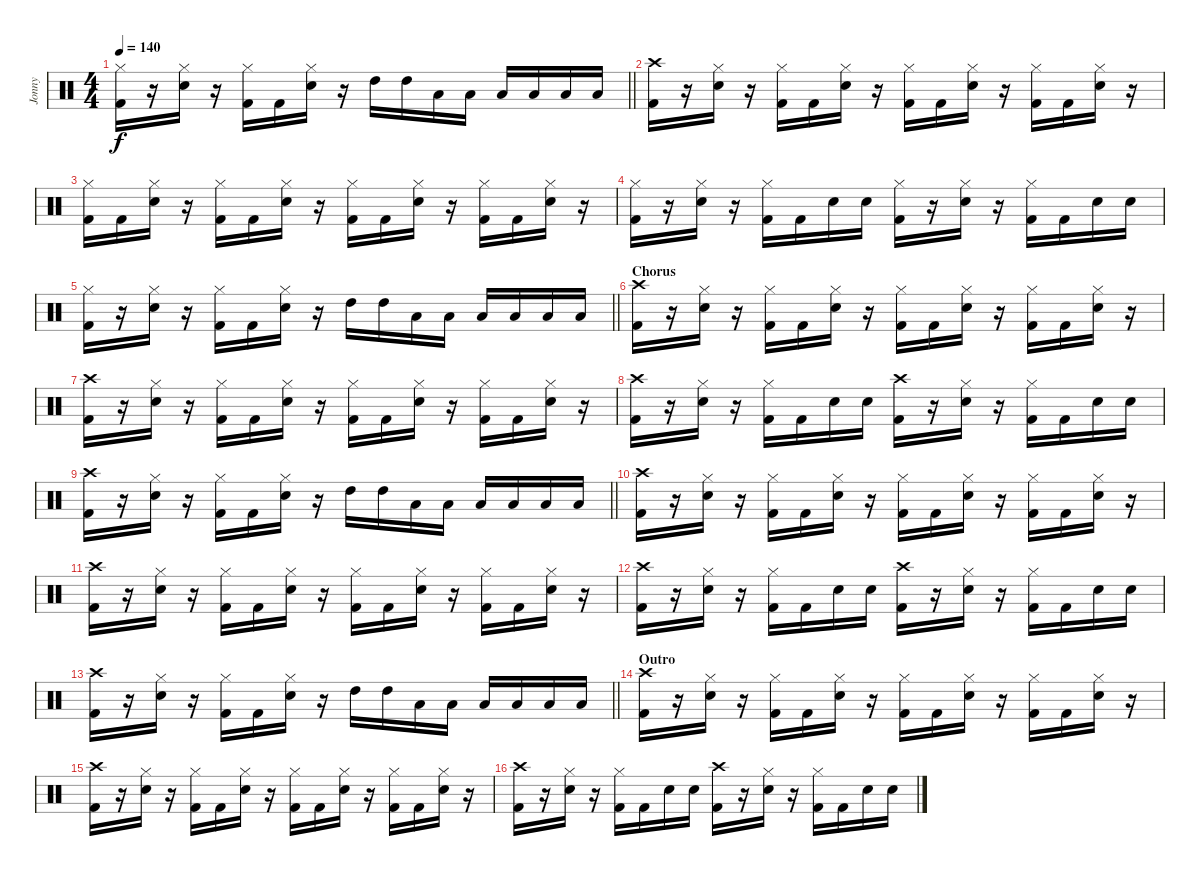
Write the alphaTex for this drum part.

\track ("Jonny" "Jonny") {instrument percussion}
\staff {score}
\articulation defaults
\ts (4 4)
\tempo 140
\clef neutral
\barLineRight lightlight
\ks c
("Hi-Hat (closed)" "Kick (hit) 2").16{dy f} r.16 ("Hi-Hat (closed)" "Electric Snare (hit)").16 r.16 ("Hi-Hat (closed)" "Kick (hit) 2").16 "Kick (hit) 2".16 ("Hi-Hat (closed)" "Electric Snare (hit)").16 r.16 "High Tom (hit)".16 "High Tom (hit)".16 "Low Tom (hit)".16 "Low Tom (hit)".16 "Low Floor Tom (hit)".16 "Low Tom (hit)".16 "Low Floor Tom (hit)".16 "Low Floor Tom (hit)".16 |
("Crash high (hit)" "Kick (hit) 2").16 r.16 ("Hi-Hat (closed)" "Electric Snare (hit)").16 r.16 ("Hi-Hat (closed)" "Kick (hit) 2").16 "Kick (hit) 2".16 ("Hi-Hat (closed)" "Electric Snare (hit)").16 r.16 ("Hi-Hat (closed)" "Kick (hit) 2").16 "Kick (hit) 2".16 ("Hi-Hat (closed)" "Electric Snare (hit)").16 r.16 ("Hi-Hat (closed)" "Kick (hit) 2").16 "Kick (hit) 2".16 ("Hi-Hat (closed)" "Electric Snare (hit)").16 r.16 |
("Hi-Hat (closed)" "Kick (hit) 2").16 "Kick (hit) 2".16 ("Hi-Hat (closed)" "Electric Snare (hit)").16 r.16 ("Hi-Hat (closed)" "Kick (hit) 2").16 "Kick (hit) 2".16 ("Hi-Hat (closed)" "Electric Snare (hit)").16 r.16 ("Hi-Hat (closed)" "Kick (hit) 2").16 "Kick (hit) 2".16 ("Hi-Hat (closed)" "Electric Snare (hit)").16 r.16 ("Hi-Hat (closed)" "Kick (hit) 2").16 "Kick (hit) 2".16 ("Hi-Hat (closed)" "Electric Snare (hit)").16 r.16 |
("Hi-Hat (closed)" "Kick (hit) 2").16 r.16 ("Hi-Hat (closed)" "Electric Snare (hit)").16 r.16 ("Hi-Hat (closed)" "Kick (hit) 2").16 "Kick (hit) 2".16 "Electric Snare (hit)".16 "Electric Snare (hit)".16 ("Hi-Hat (closed)" "Kick (hit) 2").16 r.16 ("Hi-Hat (closed)" "Electric Snare (hit)").16 r.16 ("Hi-Hat (closed)" "Kick (hit) 2").16 "Kick (hit) 2".16 "Electric Snare (hit)".16 "Electric Snare (hit)".16 |
\barLineRight lightlight
("Hi-Hat (closed)" "Kick (hit) 2").16 r.16 ("Hi-Hat (closed)" "Electric Snare (hit)").16 r.16 ("Hi-Hat (closed)" "Kick (hit) 2").16 "Kick (hit) 2".16 ("Hi-Hat (closed)" "Electric Snare (hit)").16 r.16 "High Tom (hit)".16 "High Tom (hit)".16 "Low Tom (hit)".16 "Low Tom (hit)".16 "Low Floor Tom (hit)".16 "Low Tom (hit)".16 "Low Floor Tom (hit)".16 "Low Floor Tom (hit)".16 |
\section ("" "Chorus")
("Crash high (hit)" "Kick (hit) 2").16 r.16 ("Hi-Hat (closed)" "Electric Snare (hit)").16 r.16 ("Hi-Hat (closed)" "Kick (hit) 2").16 "Kick (hit) 2".16 ("Hi-Hat (closed)" "Electric Snare (hit)").16 r.16 ("Hi-Hat (closed)" "Kick (hit) 2").16 "Kick (hit) 2".16 ("Hi-Hat (closed)" "Electric Snare (hit)").16 r.16 ("Hi-Hat (closed)" "Kick (hit) 2").16 "Kick (hit) 2".16 ("Hi-Hat (closed)" "Electric Snare (hit)").16 r.16 |
("Crash high (hit)" "Kick (hit) 2").16 r.16 ("Hi-Hat (closed)" "Electric Snare (hit)").16 r.16 ("Hi-Hat (closed)" "Kick (hit) 2").16 "Kick (hit) 2".16 ("Hi-Hat (closed)" "Electric Snare (hit)").16 r.16 ("Hi-Hat (closed)" "Kick (hit) 2").16 "Kick (hit) 2".16 ("Hi-Hat (closed)" "Electric Snare (hit)").16 r.16 ("Hi-Hat (closed)" "Kick (hit) 2").16 "Kick (hit) 2".16 ("Hi-Hat (closed)" "Electric Snare (hit)").16 r.16 |
("Crash high (hit)" "Kick (hit) 2").16 r.16 ("Hi-Hat (closed)" "Electric Snare (hit)").16 r.16 ("Hi-Hat (closed)" "Kick (hit) 2").16 "Kick (hit) 2".16 "Electric Snare (hit)".16 "Electric Snare (hit)".16 ("Crash high (hit)" "Kick (hit) 2").16 r.16 ("Hi-Hat (closed)" "Electric Snare (hit)").16 r.16 ("Hi-Hat (closed)" "Kick (hit) 2").16 "Kick (hit) 2".16 "Electric Snare (hit)".16 "Electric Snare (hit)".16 |
\barLineRight lightlight
("Crash high (hit)" "Kick (hit) 2").16 r.16 ("Hi-Hat (closed)" "Electric Snare (hit)").16 r.16 ("Hi-Hat (closed)" "Kick (hit) 2").16 "Kick (hit) 2".16 ("Hi-Hat (closed)" "Electric Snare (hit)").16 r.16 "High Tom (hit)".16 "High Tom (hit)".16 "Low Tom (hit)".16 "Low Tom (hit)".16 "Low Floor Tom (hit)".16 "Low Tom (hit)".16 "Low Floor Tom (hit)".16 "Low Floor Tom (hit)".16 |
("Crash high (hit)" "Kick (hit) 2").16 r.16 ("Hi-Hat (closed)" "Electric Snare (hit)").16 r.16 ("Hi-Hat (closed)" "Kick (hit) 2").16 "Kick (hit) 2".16 ("Hi-Hat (closed)" "Electric Snare (hit)").16 r.16 ("Hi-Hat (closed)" "Kick (hit) 2").16 "Kick (hit) 2".16 ("Hi-Hat (closed)" "Electric Snare (hit)").16 r.16 ("Hi-Hat (closed)" "Kick (hit) 2").16 "Kick (hit) 2".16 ("Hi-Hat (closed)" "Electric Snare (hit)").16 r.16 |
("Crash high (hit)" "Kick (hit) 2").16 r.16 ("Hi-Hat (closed)" "Electric Snare (hit)").16 r.16 ("Hi-Hat (closed)" "Kick (hit) 2").16 "Kick (hit) 2".16 ("Hi-Hat (closed)" "Electric Snare (hit)").16 r.16 ("Hi-Hat (closed)" "Kick (hit) 2").16 "Kick (hit) 2".16 ("Hi-Hat (closed)" "Electric Snare (hit)").16 r.16 ("Hi-Hat (closed)" "Kick (hit) 2").16 "Kick (hit) 2".16 ("Hi-Hat (closed)" "Electric Snare (hit)").16 r.16 |
("Crash high (hit)" "Kick (hit) 2").16 r.16 ("Hi-Hat (closed)" "Electric Snare (hit)").16 r.16 ("Hi-Hat (closed)" "Kick (hit) 2").16 "Kick (hit) 2".16 "Electric Snare (hit)".16 "Electric Snare (hit)".16 ("Crash high (hit)" "Kick (hit) 2").16 r.16 ("Hi-Hat (closed)" "Electric Snare (hit)").16 r.16 ("Hi-Hat (closed)" "Kick (hit) 2").16 "Kick (hit) 2".16 "Electric Snare (hit)".16 "Electric Snare (hit)".16 |
\barLineRight lightlight
("Crash high (hit)" "Kick (hit) 2").16 r.16 ("Hi-Hat (closed)" "Electric Snare (hit)").16 r.16 ("Hi-Hat (closed)" "Kick (hit) 2").16 "Kick (hit) 2".16 ("Hi-Hat (closed)" "Electric Snare (hit)").16 r.16 "High Tom (hit)".16 "High Tom (hit)".16 "Low Tom (hit)".16 "Low Tom (hit)".16 "Low Floor Tom (hit)".16 "Low Tom (hit)".16 "Low Floor Tom (hit)".16 "Low Floor Tom (hit)".16 |
\section ("" "Outro")
("Crash high (hit)" "Kick (hit) 2").16 r.16 ("Hi-Hat (closed)" "Electric Snare (hit)").16 r.16 ("Hi-Hat (closed)" "Kick (hit) 2").16 "Kick (hit) 2".16 ("Hi-Hat (closed)" "Electric Snare (hit)").16 r.16 ("Hi-Hat (closed)" "Kick (hit) 2").16 "Kick (hit) 2".16 ("Hi-Hat (closed)" "Electric Snare (hit)").16 r.16 ("Hi-Hat (closed)" "Kick (hit) 2").16 "Kick (hit) 2".16 ("Hi-Hat (closed)" "Electric Snare (hit)").16 r.16 |
("Crash high (hit)" "Kick (hit) 2").16 r.16 ("Hi-Hat (closed)" "Electric Snare (hit)").16 r.16 ("Hi-Hat (closed)" "Kick (hit) 2").16 "Kick (hit) 2".16 ("Hi-Hat (closed)" "Electric Snare (hit)").16 r.16 ("Hi-Hat (closed)" "Kick (hit) 2").16 "Kick (hit) 2".16 ("Hi-Hat (closed)" "Electric Snare (hit)").16 r.16 ("Hi-Hat (closed)" "Kick (hit) 2").16 "Kick (hit) 2".16 ("Hi-Hat (closed)" "Electric Snare (hit)").16 r.16 |
("Crash high (hit)" "Kick (hit) 2").16 r.16 ("Hi-Hat (closed)" "Electric Snare (hit)").16 r.16 ("Hi-Hat (closed)" "Kick (hit) 2").16 "Kick (hit) 2".16 "Electric Snare (hit)".16 "Electric Snare (hit)".16 ("Crash high (hit)" "Kick (hit) 2").16 r.16 ("Hi-Hat (closed)" "Electric Snare (hit)").16 r.16 ("Hi-Hat (closed)" "Kick (hit) 2").16 "Kick (hit) 2".16 "Electric Snare (hit)".16 "Electric Snare (hit)".16
